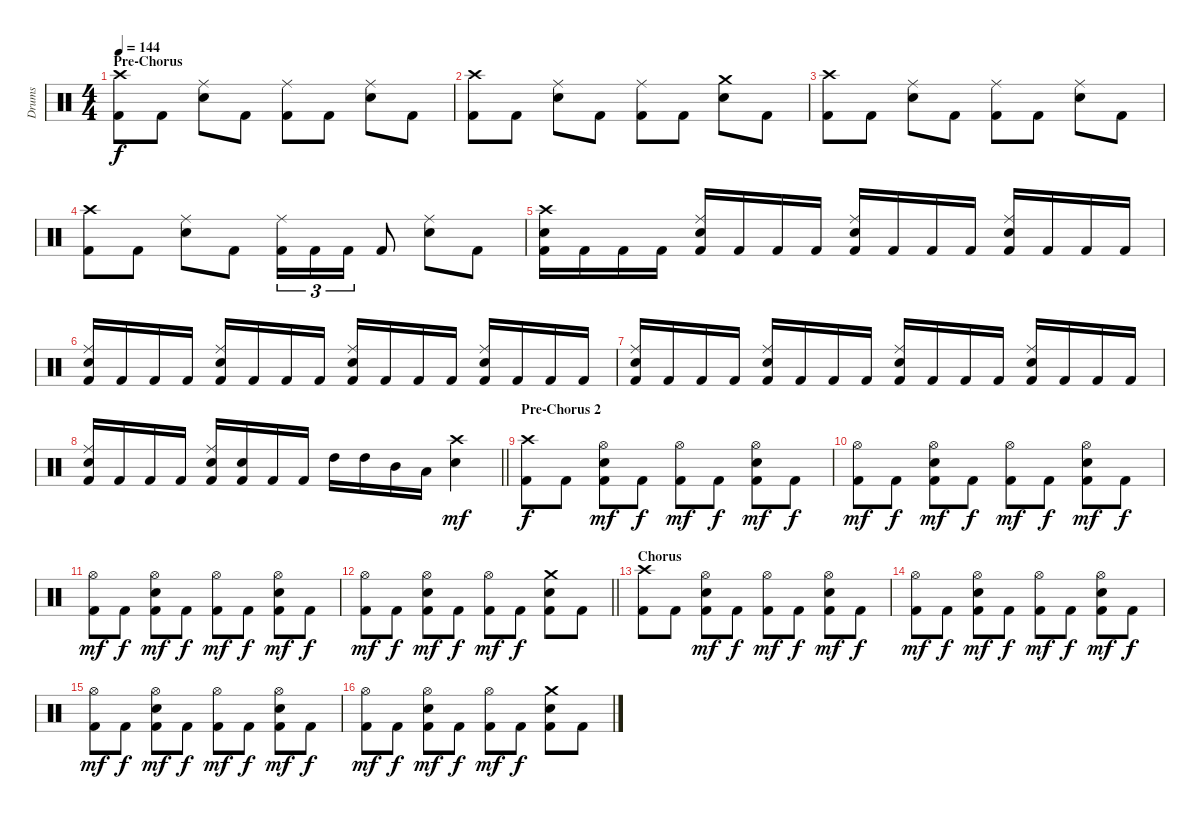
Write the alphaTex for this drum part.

\track ("Drums" "Drums") {instrument percussion}
\staff {score}
\articulation defaults
\ts (4 4)
\section ("" "Pre-Chorus")
\tempo 144
\clef neutral
\ks c
("Crash high (hit)" "Kick (hit) 2").8{dy f} "Kick (hit) 2".8 ("Ride (middle)" "Electric Snare (hit)").8 "Kick (hit) 2".8 ("Ride (middle)" "Kick (hit) 2").8 "Kick (hit) 2".8 ("Ride (middle)" "Electric Snare (hit)").8 "Kick (hit) 2".8 |
("Crash high (hit)" "Kick (hit) 2").8 "Kick (hit) 2".8 ("Ride (middle)" "Electric Snare (hit)").8 "Kick (hit) 2".8 ("Ride (middle)" "Kick (hit) 2").8 "Kick (hit) 2".8 ("Crash medium (hit)" "Electric Snare (hit)").8 "Kick (hit) 2".8 |
("Crash high (hit)" "Kick (hit) 2").8 "Kick (hit) 2".8 ("Ride (middle)" "Electric Snare (hit)").8 "Kick (hit) 2".8 ("Ride (middle)" "Kick (hit) 2").8 "Kick (hit) 2".8 ("Ride (middle)" "Electric Snare (hit)").8 "Kick (hit) 2".8 |
("Crash high (hit)" "Kick (hit) 2").8 "Kick (hit) 2".8 ("Ride (middle)" "Electric Snare (hit)").8 "Kick (hit) 2".8 ("Ride (middle)" "Kick (hit) 2").16{tu (3 2)} "Kick (hit) 2".16{tu (3 2)} "Kick (hit) 2".16{tu (3 2)} "Kick (hit) 2".8 ("Ride (middle)" "Electric Snare (hit)").8 "Kick (hit) 2".8 |
("Crash high (hit)" "Electric Snare (hit)" "Kick (hit) 2").16 "Kick (hit) 2".16 "Kick (hit) 2".16 "Kick (hit) 2".16 ("Ride (middle)" "Electric Snare (hit)" "Kick (hit) 2").16 "Kick (hit) 2".16 "Kick (hit) 2".16 "Kick (hit) 2".16 ("Ride (middle)" "Electric Snare (hit)" "Kick (hit) 2").16 "Kick (hit) 2".16 "Kick (hit) 2".16 "Kick (hit) 2".16 ("Ride (middle)" "Electric Snare (hit)" "Kick (hit) 2").16 "Kick (hit) 2".16 "Kick (hit) 2".16 "Kick (hit) 2".16 |
("Ride (middle)" "Electric Snare (hit)" "Kick (hit) 2").16 "Kick (hit) 2".16 "Kick (hit) 2".16 "Kick (hit) 2".16 ("Ride (middle)" "Electric Snare (hit)" "Kick (hit) 2").16 "Kick (hit) 2".16 "Kick (hit) 2".16 "Kick (hit) 2".16 ("Ride (middle)" "Electric Snare (hit)" "Kick (hit) 2").16 "Kick (hit) 2".16 "Kick (hit) 2".16 "Kick (hit) 2".16 ("Ride (middle)" "Electric Snare (hit)" "Kick (hit) 2").16 "Kick (hit) 2".16 "Kick (hit) 2".16 "Kick (hit) 2".16 |
("Ride (middle)" "Electric Snare (hit)" "Kick (hit) 2").16 "Kick (hit) 2".16 "Kick (hit) 2".16 "Kick (hit) 2".16 ("Ride (middle)" "Electric Snare (hit)" "Kick (hit) 2").16 "Kick (hit) 2".16 "Kick (hit) 2".16 "Kick (hit) 2".16 ("Ride (middle)" "Electric Snare (hit)" "Kick (hit) 2").16 "Kick (hit) 2".16 "Kick (hit) 2".16 "Kick (hit) 2".16 ("Ride (middle)" "Electric Snare (hit)" "Kick (hit) 2").16 "Kick (hit) 2".16 "Kick (hit) 2".16 "Kick (hit) 2".16 |
\barLineRight lightlight
("Ride (middle)" "Electric Snare (hit)" "Kick (hit) 2").16 "Kick (hit) 2".16 "Kick (hit) 2".16 "Kick (hit) 2".16 ("Ride (middle)" "Electric Snare (hit)" "Kick (hit) 2").16 ("Electric Snare (hit)" "Kick (hit) 2").16 "Kick (hit) 2".16 "Kick (hit) 2".16 "High Tom (hit)".16 "High Tom (hit)".16 "Mid Tom (hit)".16 "Low Tom (hit)".16 ("Crash high (hit)" "Electric Snare (hit)").4{dy mf} |
\section ("" "Pre-Chorus 2")
("Crash high (hit)" "Kick (hit) 2").8{dy f} "Kick (hit) 2".8 ("Hi-Hat (open)" "Electric Snare (hit)" "Kick (hit) 2").8{dy mf} "Kick (hit) 2".8{dy f} ("Hi-Hat (open)" "Kick (hit) 2").8{dy mf} "Kick (hit) 2".8{dy f} ("Hi-Hat (open)" "Electric Snare (hit)" "Kick (hit) 2").8{dy mf} "Kick (hit) 2".8{dy f} |
("Hi-Hat (open)" "Kick (hit) 2").8{dy mf} "Kick (hit) 2".8{dy f} ("Hi-Hat (open)" "Electric Snare (hit)" "Kick (hit) 2").8{dy mf} "Kick (hit) 2".8{dy f} ("Hi-Hat (open)" "Kick (hit) 2").8{dy mf} "Kick (hit) 2".8{dy f} ("Hi-Hat (open)" "Electric Snare (hit)" "Kick (hit) 2").8{dy mf} "Kick (hit) 2".8{dy f} |
("Hi-Hat (open)" "Kick (hit) 2").8{dy mf} "Kick (hit) 2".8{dy f} ("Hi-Hat (open)" "Electric Snare (hit)" "Kick (hit) 2").8{dy mf} "Kick (hit) 2".8{dy f} ("Hi-Hat (open)" "Kick (hit) 2").8{dy mf} "Kick (hit) 2".8{dy f} ("Hi-Hat (open)" "Electric Snare (hit)" "Kick (hit) 2").8{dy mf} "Kick (hit) 2".8{dy f} |
\barLineRight lightlight
("Hi-Hat (open)" "Kick (hit) 2").8{dy mf} "Kick (hit) 2".8{dy f} ("Hi-Hat (open)" "Electric Snare (hit)" "Kick (hit) 2").8{dy mf} "Kick (hit) 2".8{dy f} ("Hi-Hat (open)" "Kick (hit) 2").8{dy mf} "Kick (hit) 2".8{dy f} ("Crash medium (hit)" "Electric Snare (hit)" "Kick (hit) 2").8 "Kick (hit) 2".8 |
\section ("" "Chorus")
("Crash high (hit)" "Kick (hit) 2").8 "Kick (hit) 2".8 ("Hi-Hat (open)" "Electric Snare (hit)" "Kick (hit) 2").8{dy mf} "Kick (hit) 2".8{dy f} ("Hi-Hat (open)" "Kick (hit) 2").8{dy mf} "Kick (hit) 2".8{dy f} ("Hi-Hat (open)" "Electric Snare (hit)" "Kick (hit) 2").8{dy mf} "Kick (hit) 2".8{dy f} |
("Hi-Hat (open)" "Kick (hit) 2").8{dy mf} "Kick (hit) 2".8{dy f} ("Hi-Hat (open)" "Electric Snare (hit)" "Kick (hit) 2").8{dy mf} "Kick (hit) 2".8{dy f} ("Hi-Hat (open)" "Kick (hit) 2").8{dy mf} "Kick (hit) 2".8{dy f} ("Hi-Hat (open)" "Electric Snare (hit)" "Kick (hit) 2").8{dy mf} "Kick (hit) 2".8{dy f} |
("Hi-Hat (open)" "Kick (hit) 2").8{dy mf} "Kick (hit) 2".8{dy f} ("Hi-Hat (open)" "Electric Snare (hit)" "Kick (hit) 2").8{dy mf} "Kick (hit) 2".8{dy f} ("Hi-Hat (open)" "Kick (hit) 2").8{dy mf} "Kick (hit) 2".8{dy f} ("Hi-Hat (open)" "Electric Snare (hit)" "Kick (hit) 2").8{dy mf} "Kick (hit) 2".8{dy f} |
("Hi-Hat (open)" "Kick (hit) 2").8{dy mf} "Kick (hit) 2".8{dy f} ("Hi-Hat (open)" "Electric Snare (hit)" "Kick (hit) 2").8{dy mf} "Kick (hit) 2".8{dy f} ("Hi-Hat (open)" "Kick (hit) 2").8{dy mf} "Kick (hit) 2".8{dy f} ("Crash medium (hit)" "Electric Snare (hit)" "Kick (hit) 2").8 "Kick (hit) 2".8
